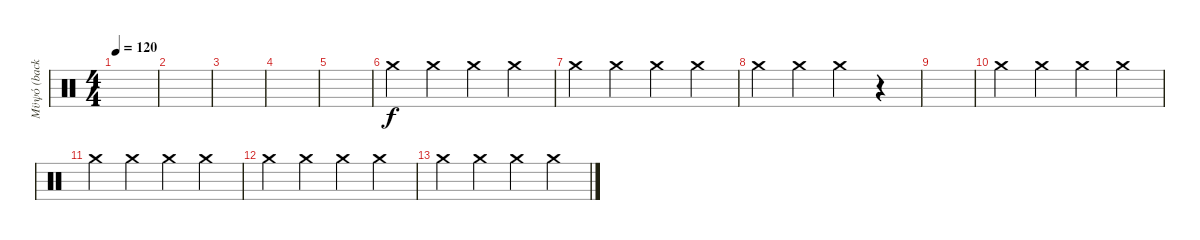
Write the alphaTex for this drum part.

\track ("Μϋψό (back percussion)" "Μϋψό (back") {instrument percussion}
\staff {score}
\articulation defaults
\ts (4 4)
\tempo 120
\clef neutral
\ks c
|
|
|
|
|
"Crash medium (hit)".4 "Crash medium (hit)".4 "Crash medium (hit)".4 "Crash medium (hit)".4 |
"Crash medium (hit)".4 "Crash medium (hit)".4 "Crash medium (hit)".4 "Crash medium (hit)".4 |
"Crash medium (hit)".4 "Crash medium (hit)".4 "Crash medium (hit)".4 r.4 |
|
"Crash medium (hit)".4 "Crash medium (hit)".4 "Crash medium (hit)".4 "Crash medium (hit)".4 |
"Crash medium (hit)".4 "Crash medium (hit)".4 "Crash medium (hit)".4 "Crash medium (hit)".4 |
"Crash medium (hit)".4 "Crash medium (hit)".4 "Crash medium (hit)".4 "Crash medium (hit)".4 |
"Crash medium (hit)".4 "Crash medium (hit)".4 "Crash medium (hit)".4 "Crash medium (hit)".4
